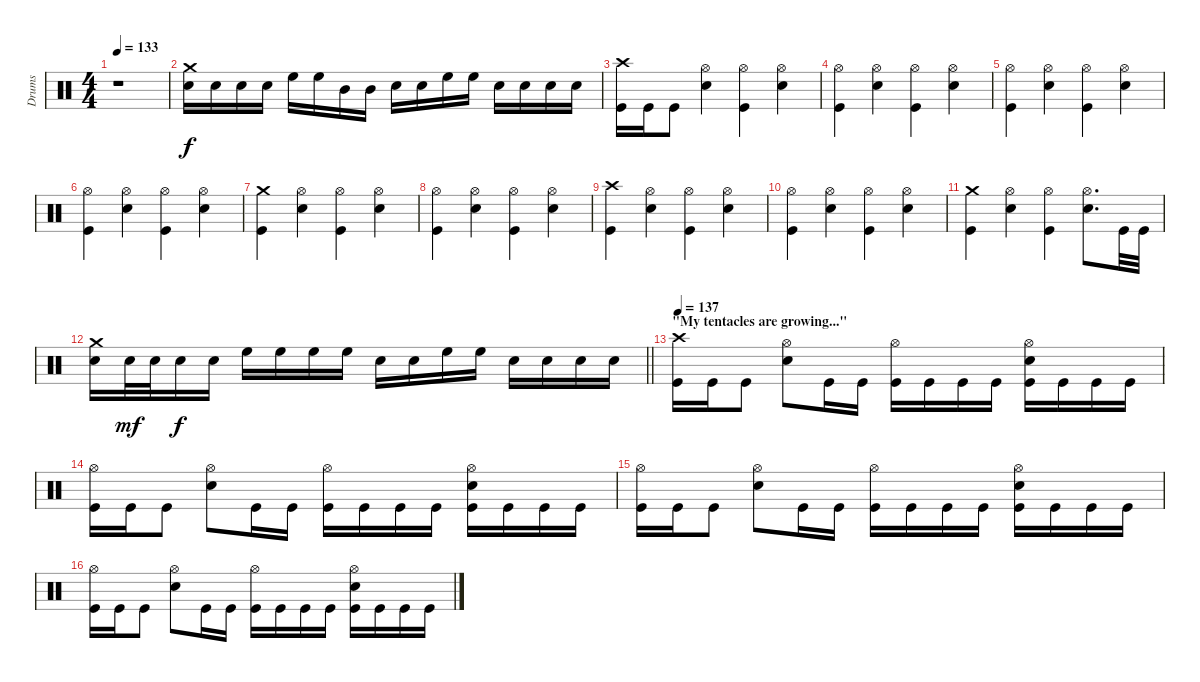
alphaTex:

\track ("Drums" "Drums") {instrument percussion}
\staff {score}
\articulation defaults
\ts (4 4)
\tempo 133
\clef neutral
\ks c
r.1{dy f} |
("Snare (hit) 2" "Crash medium (hit)").16 "Snare (hit) 2".16 "Snare (hit) 2".16 "Snare (hit) 2".16 "High Floor Tom (hit)".16 "High Floor Tom (hit)".16 "Mid Tom (hit)".16 "Mid Tom (hit)".16 "Snare (hit) 2".16 "Snare (hit) 2".16 "High Floor Tom (hit)".16 "High Floor Tom (hit)".16 "Snare (hit) 2".16 "Snare (hit) 2".16 "Snare (hit) 2".16 "Snare (hit) 2".16 |
("Kick (hit)" "Crash high (hit)").16 "Kick (hit)".16 "Kick (hit)".8 ("Hi-Hat (open)" "Snare (hit) 2").4 ("Hi-Hat (open)" "Kick (hit)").4 ("Hi-Hat (open)" "Snare (hit) 2").4 |
("Hi-Hat (open)" "Kick (hit)").4 ("Hi-Hat (open)" "Snare (hit) 2").4 ("Hi-Hat (open)" "Kick (hit)").4 ("Hi-Hat (open)" "Snare (hit) 2").4 |
("Hi-Hat (open)" "Kick (hit)").4 ("Hi-Hat (open)" "Snare (hit) 2").4 ("Hi-Hat (open)" "Kick (hit)").4 ("Hi-Hat (open)" "Snare (hit) 2").4 |
("Hi-Hat (open)" "Kick (hit)").4 ("Hi-Hat (open)" "Snare (hit) 2").4 ("Hi-Hat (open)" "Kick (hit)").4 ("Hi-Hat (open)" "Snare (hit) 2").4 |
("Crash medium (hit)" "Kick (hit)").4 ("Hi-Hat (open)" "Snare (hit) 2").4 ("Hi-Hat (open)" "Kick (hit)").4 ("Hi-Hat (open)" "Snare (hit) 2").4 |
("Hi-Hat (open)" "Kick (hit)").4 ("Hi-Hat (open)" "Snare (hit) 2").4 ("Hi-Hat (open)" "Kick (hit)").4 ("Hi-Hat (open)" "Snare (hit) 2").4 |
("Crash high (hit)" "Kick (hit)").4 ("Hi-Hat (open)" "Snare (hit) 2").4 ("Hi-Hat (open)" "Kick (hit)").4 ("Hi-Hat (open)" "Snare (hit) 2").4 |
("Hi-Hat (open)" "Kick (hit)").4 ("Hi-Hat (open)" "Snare (hit) 2").4 ("Hi-Hat (open)" "Kick (hit)").4 ("Hi-Hat (open)" "Snare (hit) 2").4 |
("Crash medium (hit)" "Kick (hit)").4 ("Hi-Hat (open)" "Snare (hit) 2").4 ("Hi-Hat (open)" "Kick (hit)").4 ("Hi-Hat (open)" "Snare (hit) 2").8{d} "Kick (hit)".32 "Kick (hit)".32 |
\barLineRight lightlight
("Snare (hit) 2" "Crash medium (hit)").16 "Snare (hit) 2".32{dy mf} "Snare (hit) 2".32 "Snare (hit) 2".16{dy f} "Snare (hit) 2".16 "High Floor Tom (hit)".16 "High Floor Tom (hit)".16 "High Floor Tom (hit)".16 "High Floor Tom (hit)".16 "Snare (hit) 2".16 "Snare (hit) 2".16 "High Floor Tom (hit)".16 "High Floor Tom (hit)".16 "Snare (hit) 2".16 "Snare (hit) 2".16 "Snare (hit) 2".16 "Snare (hit) 2".16 |
\section ("" "\"My tentacles are growing...\"")
\tempo 137
("Kick (hit)" "Crash high (hit)").16 "Kick (hit)".16 "Kick (hit)".8 ("Snare (hit) 2" "Hi-Hat (open)").8 "Kick (hit)".16 "Kick (hit)".16 ("Kick (hit)" "Hi-Hat (open)").16 "Kick (hit)".16 "Kick (hit)".16 "Kick (hit)".16 ("Kick (hit)" "Snare (hit) 2" "Hi-Hat (open)").16 "Kick (hit)".16 "Kick (hit)".16 "Kick (hit)".16 |
("Kick (hit)" "Hi-Hat (open)").16 "Kick (hit)".16 "Kick (hit)".8 ("Snare (hit) 2" "Hi-Hat (open)").8 "Kick (hit)".16 "Kick (hit)".16 ("Kick (hit)" "Hi-Hat (open)").16 "Kick (hit)".16 "Kick (hit)".16 "Kick (hit)".16 ("Kick (hit)" "Snare (hit) 2" "Hi-Hat (open)").16 "Kick (hit)".16 "Kick (hit)".16 "Kick (hit)".16 |
("Kick (hit)" "Hi-Hat (open)").16 "Kick (hit)".16 "Kick (hit)".8 ("Snare (hit) 2" "Hi-Hat (open)").8 "Kick (hit)".16 "Kick (hit)".16 ("Kick (hit)" "Hi-Hat (open)").16 "Kick (hit)".16 "Kick (hit)".16 "Kick (hit)".16 ("Kick (hit)" "Snare (hit) 2" "Hi-Hat (open)").16 "Kick (hit)".16 "Kick (hit)".16 "Kick (hit)".16 |
("Kick (hit)" "Hi-Hat (open)").16 "Kick (hit)".16 "Kick (hit)".8 ("Snare (hit) 2" "Hi-Hat (open)").8 "Kick (hit)".16 "Kick (hit)".16 ("Kick (hit)" "Hi-Hat (open)").16 "Kick (hit)".16 "Kick (hit)".16 "Kick (hit)".16 ("Kick (hit)" "Snare (hit) 2" "Hi-Hat (open)").16 "Kick (hit)".16 "Kick (hit)".16 "Kick (hit)".16
